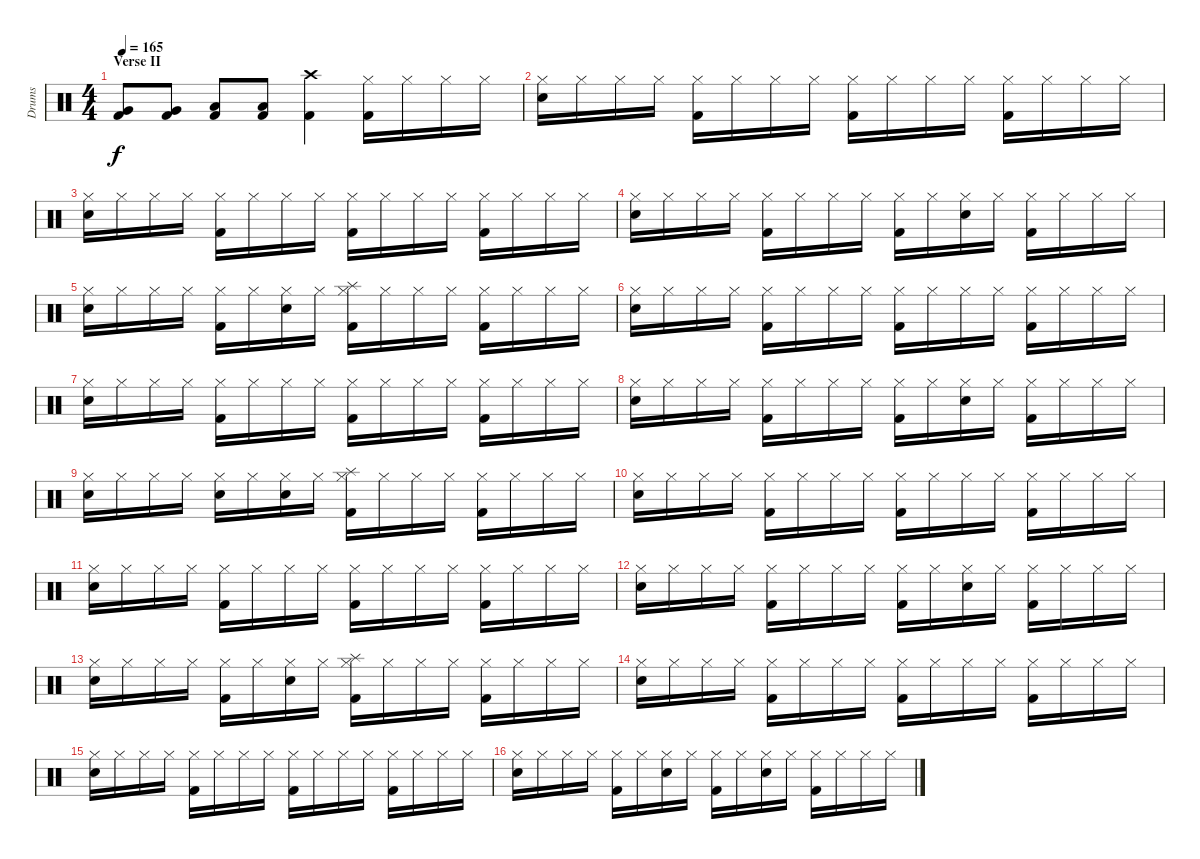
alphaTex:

\track ("Drums" "Drums") {instrument percussion}
\staff {score}
\articulation defaults
\ts (4 4)
\section ("" "Verse II")
\tempo 165
\clef neutral
\ks c
("Very Low Tom (hit)" "Kick (hit) 2").8{dy f} ("Very Low Tom (hit)" "Kick (hit) 2").8 ("Low Floor Tom (hit)" "Kick (hit) 2").8 ("Low Floor Tom (hit)" "Kick (hit) 2").8 ("Crash high (hit)" "Kick (hit) 2").4 ("Kick (hit) 2" "Hi-Hat (closed)").16 "Hi-Hat (closed)".16 "Hi-Hat (closed)".16 "Hi-Hat (closed)".16 |
("Hi-Hat (closed)" "Electric Snare (hit)").16 "Hi-Hat (closed)".16 "Hi-Hat (closed)".16 "Hi-Hat (closed)".16 ("Kick (hit) 2" "Hi-Hat (closed)").16 "Hi-Hat (closed)".16 "Hi-Hat (closed)".16 "Hi-Hat (closed)".16 ("Kick (hit) 2" "Hi-Hat (closed)").16 "Hi-Hat (closed)".16 "Hi-Hat (closed)".16 "Hi-Hat (closed)".16 ("Kick (hit) 2" "Hi-Hat (closed)").16 "Hi-Hat (closed)".16 "Hi-Hat (closed)".16 "Hi-Hat (closed)".16 |
("Hi-Hat (closed)" "Electric Snare (hit)").16 "Hi-Hat (closed)".16 "Hi-Hat (closed)".16 "Hi-Hat (closed)".16 ("Kick (hit) 2" "Hi-Hat (closed)").16 "Hi-Hat (closed)".16 "Hi-Hat (closed)".16 "Hi-Hat (closed)".16 ("Kick (hit) 2" "Hi-Hat (closed)").16 "Hi-Hat (closed)".16 "Hi-Hat (closed)".16 "Hi-Hat (closed)".16 ("Kick (hit) 2" "Hi-Hat (closed)").16 "Hi-Hat (closed)".16 "Hi-Hat (closed)".16 "Hi-Hat (closed)".16 |
("Hi-Hat (closed)" "Electric Snare (hit)").16 "Hi-Hat (closed)".16 "Hi-Hat (closed)".16 "Hi-Hat (closed)".16 ("Kick (hit) 2" "Hi-Hat (closed)").16 "Hi-Hat (closed)".16 "Hi-Hat (closed)".16 "Hi-Hat (closed)".16 ("Kick (hit) 2" "Hi-Hat (closed)").16 "Hi-Hat (closed)".16 ("Hi-Hat (closed)" "Electric Snare (hit)").16 "Hi-Hat (closed)".16 ("Kick (hit) 2" "Hi-Hat (closed)").16 "Hi-Hat (closed)".16 "Hi-Hat (closed)".16 "Hi-Hat (closed)".16 |
("Hi-Hat (closed)" "Electric Snare (hit)").16 "Hi-Hat (closed)".16 "Hi-Hat (closed)".16 "Hi-Hat (closed)".16 ("Kick (hit) 2" "Hi-Hat (closed)").16 "Hi-Hat (closed)".16 ("Hi-Hat (closed)" "Electric Snare (hit)").16 "Hi-Hat (closed)".16 ("Splash (hit)" "Kick (hit) 2" "Hi-Hat (closed)").16 "Hi-Hat (closed)".16 "Hi-Hat (closed)".16 "Hi-Hat (closed)".16 ("Kick (hit) 2" "Hi-Hat (closed)").16 "Hi-Hat (closed)".16 "Hi-Hat (closed)".16 "Hi-Hat (closed)".16 |
("Hi-Hat (closed)" "Electric Snare (hit)").16 "Hi-Hat (closed)".16 "Hi-Hat (closed)".16 "Hi-Hat (closed)".16 ("Kick (hit) 2" "Hi-Hat (closed)").16 "Hi-Hat (closed)".16 "Hi-Hat (closed)".16 "Hi-Hat (closed)".16 ("Kick (hit) 2" "Hi-Hat (closed)").16 "Hi-Hat (closed)".16 "Hi-Hat (closed)".16 "Hi-Hat (closed)".16 ("Kick (hit) 2" "Hi-Hat (closed)").16 "Hi-Hat (closed)".16 "Hi-Hat (closed)".16 "Hi-Hat (closed)".16 |
("Hi-Hat (closed)" "Electric Snare (hit)").16 "Hi-Hat (closed)".16 "Hi-Hat (closed)".16 "Hi-Hat (closed)".16 ("Kick (hit) 2" "Hi-Hat (closed)").16 "Hi-Hat (closed)".16 "Hi-Hat (closed)".16 "Hi-Hat (closed)".16 ("Kick (hit) 2" "Hi-Hat (closed)").16 "Hi-Hat (closed)".16 "Hi-Hat (closed)".16 "Hi-Hat (closed)".16 ("Kick (hit) 2" "Hi-Hat (closed)").16 "Hi-Hat (closed)".16 "Hi-Hat (closed)".16 "Hi-Hat (closed)".16 |
("Hi-Hat (closed)" "Electric Snare (hit)").16 "Hi-Hat (closed)".16 "Hi-Hat (closed)".16 "Hi-Hat (closed)".16 ("Kick (hit) 2" "Hi-Hat (closed)").16 "Hi-Hat (closed)".16 "Hi-Hat (closed)".16 "Hi-Hat (closed)".16 ("Kick (hit) 2" "Hi-Hat (closed)").16 "Hi-Hat (closed)".16 ("Hi-Hat (closed)" "Electric Snare (hit)").16 "Hi-Hat (closed)".16 ("Kick (hit) 2" "Hi-Hat (closed)").16 "Hi-Hat (closed)".16 "Hi-Hat (closed)".16 "Hi-Hat (closed)".16 |
("Hi-Hat (closed)" "Electric Snare (hit)").16 "Hi-Hat (closed)".16 "Hi-Hat (closed)".16 "Hi-Hat (closed)".16 ("Hi-Hat (closed)" "Electric Snare (hit)").16 "Hi-Hat (closed)".16 ("Hi-Hat (closed)" "Electric Snare (hit)").16 "Hi-Hat (closed)".16 ("Splash (hit)" "Kick (hit) 2" "Hi-Hat (closed)").16 "Hi-Hat (closed)".16 "Hi-Hat (closed)".16 "Hi-Hat (closed)".16 ("Kick (hit) 2" "Hi-Hat (closed)").16 "Hi-Hat (closed)".16 "Hi-Hat (closed)".16 "Hi-Hat (closed)".16 |
("Hi-Hat (closed)" "Electric Snare (hit)").16 "Hi-Hat (closed)".16 "Hi-Hat (closed)".16 "Hi-Hat (closed)".16 ("Kick (hit) 2" "Hi-Hat (closed)").16 "Hi-Hat (closed)".16 "Hi-Hat (closed)".16 "Hi-Hat (closed)".16 ("Kick (hit) 2" "Hi-Hat (closed)").16 "Hi-Hat (closed)".16 "Hi-Hat (closed)".16 "Hi-Hat (closed)".16 ("Kick (hit) 2" "Hi-Hat (closed)").16 "Hi-Hat (closed)".16 "Hi-Hat (closed)".16 "Hi-Hat (closed)".16 |
("Hi-Hat (closed)" "Electric Snare (hit)").16 "Hi-Hat (closed)".16 "Hi-Hat (closed)".16 "Hi-Hat (closed)".16 ("Kick (hit) 2" "Hi-Hat (closed)").16 "Hi-Hat (closed)".16 "Hi-Hat (closed)".16 "Hi-Hat (closed)".16 ("Kick (hit) 2" "Hi-Hat (closed)").16 "Hi-Hat (closed)".16 "Hi-Hat (closed)".16 "Hi-Hat (closed)".16 ("Kick (hit) 2" "Hi-Hat (closed)").16 "Hi-Hat (closed)".16 "Hi-Hat (closed)".16 "Hi-Hat (closed)".16 |
("Hi-Hat (closed)" "Electric Snare (hit)").16 "Hi-Hat (closed)".16 "Hi-Hat (closed)".16 "Hi-Hat (closed)".16 ("Kick (hit) 2" "Hi-Hat (closed)").16 "Hi-Hat (closed)".16 "Hi-Hat (closed)".16 "Hi-Hat (closed)".16 ("Kick (hit) 2" "Hi-Hat (closed)").16 "Hi-Hat (closed)".16 ("Hi-Hat (closed)" "Electric Snare (hit)").16 "Hi-Hat (closed)".16 ("Kick (hit) 2" "Hi-Hat (closed)").16 "Hi-Hat (closed)".16 "Hi-Hat (closed)".16 "Hi-Hat (closed)".16 |
("Hi-Hat (closed)" "Electric Snare (hit)").16 "Hi-Hat (closed)".16 "Hi-Hat (closed)".16 "Hi-Hat (closed)".16 ("Kick (hit) 2" "Hi-Hat (closed)").16 "Hi-Hat (closed)".16 ("Hi-Hat (closed)" "Electric Snare (hit)").16 "Hi-Hat (closed)".16 ("Splash (hit)" "Kick (hit) 2" "Hi-Hat (closed)").16 "Hi-Hat (closed)".16 "Hi-Hat (closed)".16 "Hi-Hat (closed)".16 ("Kick (hit) 2" "Hi-Hat (closed)").16 "Hi-Hat (closed)".16 "Hi-Hat (closed)".16 "Hi-Hat (closed)".16 |
("Hi-Hat (closed)" "Electric Snare (hit)").16 "Hi-Hat (closed)".16 "Hi-Hat (closed)".16 "Hi-Hat (closed)".16 ("Kick (hit) 2" "Hi-Hat (closed)").16 "Hi-Hat (closed)".16 "Hi-Hat (closed)".16 "Hi-Hat (closed)".16 ("Kick (hit) 2" "Hi-Hat (closed)").16 "Hi-Hat (closed)".16 "Hi-Hat (closed)".16 "Hi-Hat (closed)".16 ("Kick (hit) 2" "Hi-Hat (closed)").16 "Hi-Hat (closed)".16 "Hi-Hat (closed)".16 "Hi-Hat (closed)".16 |
("Hi-Hat (closed)" "Electric Snare (hit)").16 "Hi-Hat (closed)".16 "Hi-Hat (closed)".16 "Hi-Hat (closed)".16 ("Kick (hit) 2" "Hi-Hat (closed)").16 "Hi-Hat (closed)".16 "Hi-Hat (closed)".16 "Hi-Hat (closed)".16 ("Kick (hit) 2" "Hi-Hat (closed)").16 "Hi-Hat (closed)".16 "Hi-Hat (closed)".16 "Hi-Hat (closed)".16 ("Kick (hit) 2" "Hi-Hat (closed)").16 "Hi-Hat (closed)".16 "Hi-Hat (closed)".16 "Hi-Hat (closed)".16 |
("Hi-Hat (closed)" "Electric Snare (hit)").16 "Hi-Hat (closed)".16 "Hi-Hat (closed)".16 "Hi-Hat (closed)".16 ("Kick (hit) 2" "Hi-Hat (closed)").16 "Hi-Hat (closed)".16 ("Hi-Hat (closed)" "Electric Snare (hit)").16 "Hi-Hat (closed)".16 ("Kick (hit) 2" "Hi-Hat (closed)").16 "Hi-Hat (closed)".16 ("Hi-Hat (closed)" "Electric Snare (hit)").16 "Hi-Hat (closed)".16 ("Kick (hit) 2" "Hi-Hat (closed)").16 "Hi-Hat (closed)".16 "Hi-Hat (closed)".16 "Hi-Hat (closed)".16
